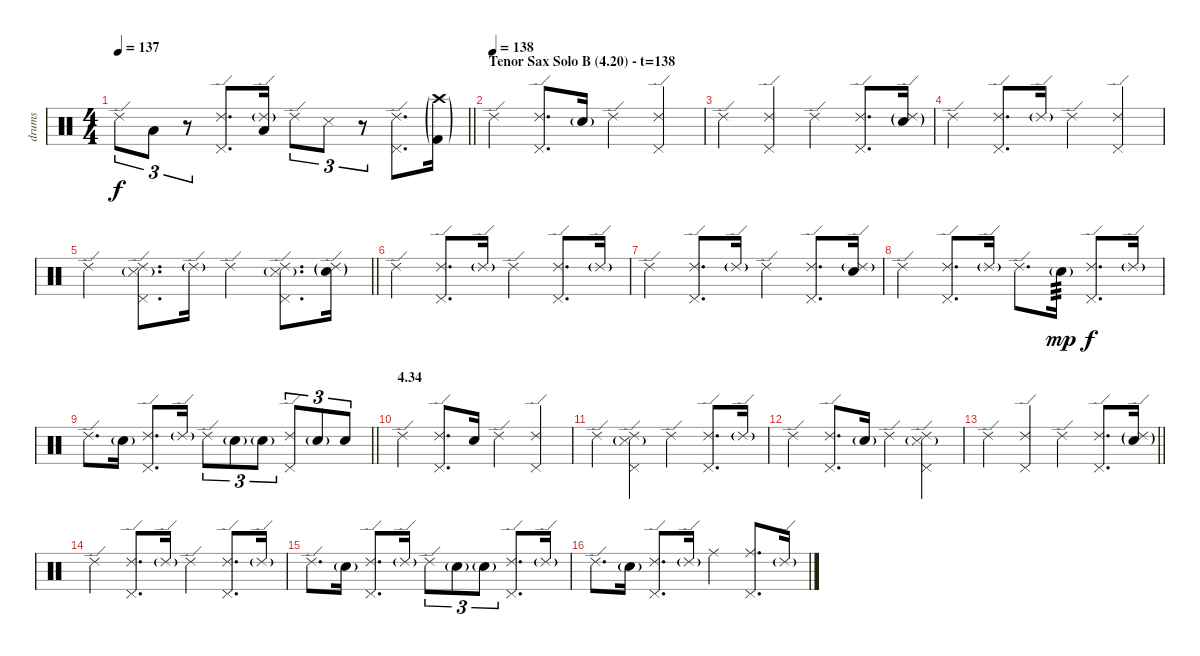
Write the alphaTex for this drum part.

\track ("drums" "drums") {instrument percussion}
\staff {score}
\articulation defaults
\ts (4 4)
\tempo 137
\clef neutral
\barLineRight lightlight
\ks c "Ride (edge) 2".8{tu (3 2) dy f} "Low Tom (hit)".8{tu (3 2)}
r.8{tu (3 2)} ("Ride (edge) 2" "Pedal Hi-Hat (hit)").8{d} ("Ride (edge) 2"{g} "Low Tom (hit)").16 "Ride (edge) 2".8{tu (3 2)} "Snare (side stick) 3".8{tu (3 2)} r.8{tu (3 2)} ("Ride (edge) 2" "Pedal Hi-Hat (hit)").8{d} ("Crash high (hit)"{g} "Kick (hit) 2"{g}).16 |
\section ("" "Tenor Sax Solo B (4.20) - t=138")
\tempo (138)
"Ride (edge) 2".4 ("Ride (edge) 2" "Pedal Hi-Hat (hit)").8{d} "Electric Snare (hit)"{g}.16 "Ride (edge) 2".4 ("Ride (edge) 2" "Pedal Hi-Hat (hit)").4 |
"Ride (edge) 2".4 ("Ride (edge) 2" "Pedal Hi-Hat (hit)").4 "Ride (edge) 2".4 ("Ride (edge) 2" "Pedal Hi-Hat (hit)").8{d} ("Ride (edge) 2"{g} "Electric Snare (hit)"{g}).16 |
"Ride (edge) 2".4 ("Ride (edge) 2" "Pedal Hi-Hat (hit)").8{d} "Ride (edge) 2"{g}.16 "Ride (edge) 2".4 ("Ride (edge) 2" "Pedal Hi-Hat (hit)").4 |
\barLineRight lightlight "Ride (edge) 2".4
("Ride (edge) 2" "Pedal Hi-Hat (hit)" "Snare (side stick) 3"{g}).8{d} "Ride (edge) 2"{g}.16 "Ride (edge) 2".4 ("Ride (edge) 2" "Pedal Hi-Hat (hit)" "Snare (side stick) 3"{g}).8{d} ("Ride (edge) 2"{g} "Electric Snare (hit)"{g}).16 |
"Ride (edge) 2".4 ("Ride (edge) 2" "Pedal Hi-Hat (hit)").8{d} "Ride (edge) 2"{g}.16 "Ride (edge) 2".4 ("Ride (edge) 2" "Pedal Hi-Hat (hit)").8{d} "Ride (edge) 2"{g}.16 |
"Ride (edge) 2".4 ("Ride (edge) 2" "Pedal Hi-Hat (hit)").8{d} "Ride (edge) 2"{g}.16 "Ride (edge) 2".4 ("Ride (edge) 2" "Pedal Hi-Hat (hit)").8{d} ("Ride (edge) 2"{g} "Electric Snare (hit)").16 |
"Ride (edge) 2".4 ("Ride (edge) 2" "Pedal Hi-Hat (hit)").8{d} "Ride (edge) 2"{g}.16 "Ride (edge) 2".8{d} "Electric Snare (hit)"{g}.16{tp 3 dy mp} ("Ride (edge) 2" "Pedal Hi-Hat (hit)").8{d dy f} "Ride (edge) 2"{g}.16 |
\barLineRight lightlight "Ride (edge) 2".8{d} "Electric Snare (hit)"{g}.16
("Ride (edge) 2" "Pedal Hi-Hat (hit)").8{d} "Ride (edge) 2"{g}.16 "Ride (edge) 2".8{tu (3 2)} "Electric Snare (hit)"{g}.8{tu (3 2)} "Electric Snare (hit)"{g}.8{tu (3 2)} ("Ride (edge) 2" "Pedal Hi-Hat (hit)").8{tu (3 2)} "Electric Snare (hit)"{g}.8{tu (3 2)} "Electric Snare (hit)".8{tu (3 2)} |
\section ("" "4.34")
"Ride (edge) 2".4 ("Ride (edge) 2" "Pedal Hi-Hat (hit)").8{d} "Electric Snare (hit)".16 "Ride (edge) 2".4 ("Ride (edge) 2" "Pedal Hi-Hat (hit)").4 |
"Ride (edge) 2".4 ("Ride (edge) 2" "Pedal Hi-Hat (hit)" "Snare (side stick) 3"{g}).4 "Ride (edge) 2".4 ("Ride (edge) 2" "Pedal Hi-Hat (hit)").8{d} "Ride (edge) 2"{g}.16 |
"Ride (edge) 2".4 ("Ride (edge) 2" "Pedal Hi-Hat (hit)").8{d} "Electric Snare (hit)"{g}.16 "Ride (edge) 2".4 ("Ride (edge) 2" "Pedal Hi-Hat (hit)" "Snare (side stick) 3"{g}).4 |
\barLineRight lightlight "Ride (edge) 2".4
("Ride (edge) 2" "Pedal Hi-Hat (hit)").4 "Ride (edge) 2".4 ("Ride (edge) 2" "Pedal Hi-Hat (hit)").8{d} ("Ride (edge) 2"{g} "Electric Snare (hit)"{g}).16 |
"Ride (edge) 2".4 ("Ride (edge) 2" "Pedal Hi-Hat (hit)").8{d} "Ride (edge) 2"{g}.16 "Ride (edge) 2".4 ("Ride (edge) 2" "Pedal Hi-Hat (hit)").8{d} "Ride (edge) 2"{g}.16 |
"Ride (edge) 2".8{d} "Electric Snare (hit)"{g}.16 ("Ride (edge) 2" "Pedal Hi-Hat (hit)").8{d} "Ride (edge) 2"{g}.16 "Ride (edge) 2".8{tu (3 2)} "Electric Snare (hit)"{g}.8{tu (3 2)} "Electric Snare (hit)"{g}.8{tu (3 2)} ("Ride (edge) 2" "Pedal Hi-Hat (hit)").8{d} "Ride (edge) 2"{g}.16 |
"Ride (edge) 2".8{d} "Electric Snare (hit)"{g}.16 ("Ride (edge) 2" "Pedal Hi-Hat (hit)").8{d} "Ride (edge) 2"{g}.16 "Ride (middle)".4 ("Ride (middle)" "Pedal Hi-Hat (hit)").8{d} "Ride (edge) 2"{g}.16
